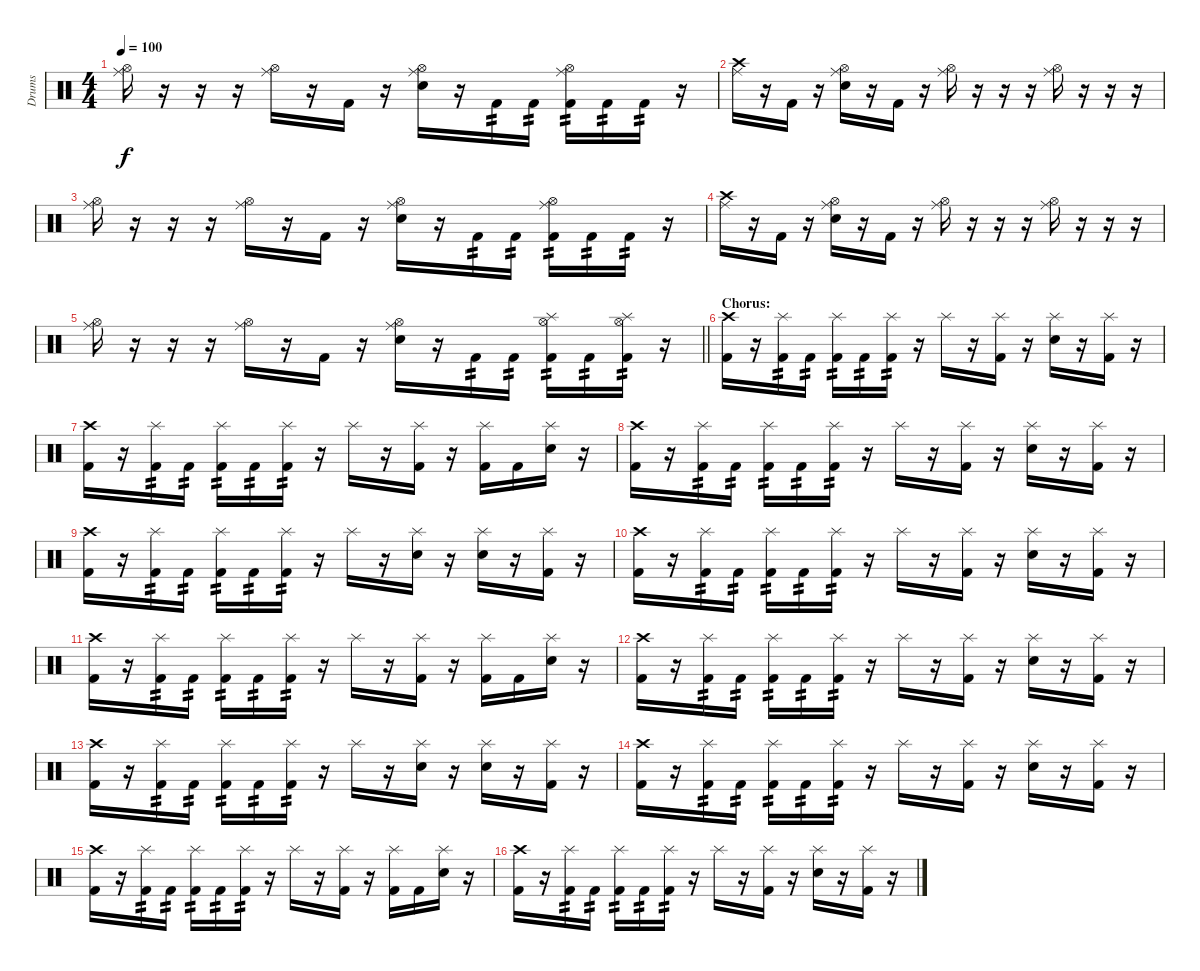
\track ("Drums" "Drums") {instrument percussion}
\staff {score}
\articulation defaults
\ts (4 4)
\tempo 100
\clef neutral
\ks c
("Ride (middle)" "Hi-Hat (open)").16{dy f} r.16 r.16 r.16 ("Ride (middle)" "Hi-Hat (open)").16 r.16 "Kick (hit) 2".16 r.16 ("Ride (middle)" "Hi-Hat (open)" "Electric Snare (hit)").16 r.16 "Kick (hit) 2".16{tp 2} "Kick (hit) 2".16{tp 2} ("Ride (middle)" "Hi-Hat (open)" "Kick (hit) 2").16{tp 2} "Kick (hit) 2".16{tp 2} "Kick (hit) 2".16{tp 2} r.16 |
("Ride (middle)" "Crash high (hit)").16 r.16 "Kick (hit) 2".16 r.16 ("Ride (middle)" "Hi-Hat (open)" "Electric Snare (hit)").16 r.16 "Kick (hit) 2".16 r.16 ("Ride (middle)" "Hi-Hat (open)").16 r.16 r.16 r.16 ("Ride (middle)" "Hi-Hat (open)").16 r.16 r.16 r.16 |
("Ride (middle)" "Hi-Hat (open)").16 r.16 r.16 r.16 ("Ride (middle)" "Hi-Hat (open)").16 r.16 "Kick (hit) 2".16 r.16 ("Ride (middle)" "Hi-Hat (open)" "Electric Snare (hit)").16 r.16 "Kick (hit) 2".16{tp 2} "Kick (hit) 2".16{tp 2} ("Ride (middle)" "Hi-Hat (open)" "Kick (hit) 2").16{tp 2} "Kick (hit) 2".16{tp 2} "Kick (hit) 2".16{tp 2} r.16 |
("Ride (middle)" "Crash high (hit)").16 r.16 "Kick (hit) 2".16 r.16 ("Ride (middle)" "Hi-Hat (open)" "Electric Snare (hit)").16 r.16 "Kick (hit) 2".16 r.16 ("Ride (middle)" "Hi-Hat (open)").16 r.16 r.16 r.16 ("Ride (middle)" "Hi-Hat (open)").16 r.16 r.16 r.16 |
\barLineRight lightlight
("Ride (middle)" "Hi-Hat (open)").16 r.16 r.16 r.16 ("Ride (middle)" "Hi-Hat (open)").16 r.16 "Kick (hit) 2".16 r.16 ("Ride (middle)" "Hi-Hat (open)" "Electric Snare (hit)").16 r.16 "Kick (hit) 2".16{tp 2} "Kick (hit) 2".16{tp 2} ("Splash (hit)" "Hi-Hat (open)" "Kick (hit) 2").16{tp 2} "Kick (hit) 2".16{tp 2} ("Splash (hit)" "Hi-Hat (open)" "Kick (hit) 2").16{tp 2} r.16 |
\section ("" "Chorus:")
("Crash high (hit)" "Kick (hit) 2").16 r.16 ("Splash (hit)" "Kick (hit) 2").16{tp 2} "Kick (hit) 2".16{tp 2} ("Splash (hit)" "Kick (hit) 2").16{tp 2} "Kick (hit) 2".16{tp 2} ("Splash (hit)" "Kick (hit) 2").16{tp 2} r.16 "Splash (hit)".16 r.16 ("Splash (hit)" "Kick (hit) 2").16 r.16 ("Splash (hit)" "Electric Snare (hit)").16 r.16 ("Splash (hit)" "Kick (hit) 2").16 r.16 |
("Crash high (hit)" "Kick (hit) 2").16 r.16 ("Splash (hit)" "Kick (hit) 2").16{tp 2} "Kick (hit) 2".16{tp 2} ("Splash (hit)" "Kick (hit) 2").16{tp 2} "Kick (hit) 2".16{tp 2} ("Splash (hit)" "Kick (hit) 2").16{tp 2} r.16 "Splash (hit)".16 r.16 ("Splash (hit)" "Kick (hit) 2").16 r.16 ("Splash (hit)" "Kick (hit) 2").16 "Kick (hit) 2".16 ("Splash (hit)" "Electric Snare (hit)").16 r.16 |
("Crash high (hit)" "Kick (hit) 2").16 r.16 ("Splash (hit)" "Kick (hit) 2").16{tp 2} "Kick (hit) 2".16{tp 2} ("Splash (hit)" "Kick (hit) 2").16{tp 2} "Kick (hit) 2".16{tp 2} ("Splash (hit)" "Kick (hit) 2").16{tp 2} r.16 "Splash (hit)".16 r.16 ("Splash (hit)" "Kick (hit) 2").16 r.16 ("Splash (hit)" "Electric Snare (hit)").16 r.16 ("Splash (hit)" "Kick (hit) 2").16 r.16 |
("Crash high (hit)" "Kick (hit) 2").16 r.16 ("Splash (hit)" "Kick (hit) 2").16{tp 2} "Kick (hit) 2".16{tp 2} ("Splash (hit)" "Kick (hit) 2").16{tp 2} "Kick (hit) 2".16{tp 2} ("Splash (hit)" "Kick (hit) 2").16{tp 2} r.16 "Splash (hit)".16 r.16 ("Splash (hit)" "Electric Snare (hit)").16 r.16 ("Splash (hit)" "Electric Snare (hit)").16 r.16 ("Splash (hit)" "Kick (hit) 2").16 r.16 |
("Crash high (hit)" "Kick (hit) 2").16 r.16 ("Splash (hit)" "Kick (hit) 2").16{tp 2} "Kick (hit) 2".16{tp 2} ("Splash (hit)" "Kick (hit) 2").16{tp 2} "Kick (hit) 2".16{tp 2} ("Splash (hit)" "Kick (hit) 2").16{tp 2} r.16 "Splash (hit)".16 r.16 ("Splash (hit)" "Kick (hit) 2").16 r.16 ("Splash (hit)" "Electric Snare (hit)").16 r.16 ("Splash (hit)" "Kick (hit) 2").16 r.16 |
("Crash high (hit)" "Kick (hit) 2").16 r.16 ("Splash (hit)" "Kick (hit) 2").16{tp 2} "Kick (hit) 2".16{tp 2} ("Splash (hit)" "Kick (hit) 2").16{tp 2} "Kick (hit) 2".16{tp 2} ("Splash (hit)" "Kick (hit) 2").16{tp 2} r.16 "Splash (hit)".16 r.16 ("Splash (hit)" "Kick (hit) 2").16 r.16 ("Splash (hit)" "Kick (hit) 2").16 "Kick (hit) 2".16 ("Splash (hit)" "Electric Snare (hit)").16 r.16 |
("Crash high (hit)" "Kick (hit) 2").16 r.16 ("Splash (hit)" "Kick (hit) 2").16{tp 2} "Kick (hit) 2".16{tp 2} ("Splash (hit)" "Kick (hit) 2").16{tp 2} "Kick (hit) 2".16{tp 2} ("Splash (hit)" "Kick (hit) 2").16{tp 2} r.16 "Splash (hit)".16 r.16 ("Splash (hit)" "Kick (hit) 2").16 r.16 ("Splash (hit)" "Electric Snare (hit)").16 r.16 ("Splash (hit)" "Kick (hit) 2").16 r.16 |
("Crash high (hit)" "Kick (hit) 2").16 r.16 ("Splash (hit)" "Kick (hit) 2").16{tp 2} "Kick (hit) 2".16{tp 2} ("Splash (hit)" "Kick (hit) 2").16{tp 2} "Kick (hit) 2".16{tp 2} ("Splash (hit)" "Kick (hit) 2").16{tp 2} r.16 "Splash (hit)".16 r.16 ("Splash (hit)" "Electric Snare (hit)").16 r.16 ("Splash (hit)" "Electric Snare (hit)").16 r.16 ("Splash (hit)" "Kick (hit) 2").16 r.16 |
("Crash high (hit)" "Kick (hit) 2").16 r.16 ("Splash (hit)" "Kick (hit) 2").16{tp 2} "Kick (hit) 2".16{tp 2} ("Splash (hit)" "Kick (hit) 2").16{tp 2} "Kick (hit) 2".16{tp 2} ("Splash (hit)" "Kick (hit) 2").16{tp 2} r.16 "Splash (hit)".16 r.16 ("Splash (hit)" "Kick (hit) 2").16 r.16 ("Splash (hit)" "Electric Snare (hit)").16 r.16 ("Splash (hit)" "Kick (hit) 2").16 r.16 |
("Crash high (hit)" "Kick (hit) 2").16 r.16 ("Splash (hit)" "Kick (hit) 2").16{tp 2} "Kick (hit) 2".16{tp 2} ("Splash (hit)" "Kick (hit) 2").16{tp 2} "Kick (hit) 2".16{tp 2} ("Splash (hit)" "Kick (hit) 2").16{tp 2} r.16 "Splash (hit)".16 r.16 ("Splash (hit)" "Kick (hit) 2").16 r.16 ("Splash (hit)" "Kick (hit) 2").16 "Kick (hit) 2".16 ("Splash (hit)" "Electric Snare (hit)").16 r.16 |
("Crash high (hit)" "Kick (hit) 2").16 r.16 ("Splash (hit)" "Kick (hit) 2").16{tp 2} "Kick (hit) 2".16{tp 2} ("Splash (hit)" "Kick (hit) 2").16{tp 2} "Kick (hit) 2".16{tp 2} ("Splash (hit)" "Kick (hit) 2").16{tp 2} r.16 "Splash (hit)".16 r.16 ("Splash (hit)" "Kick (hit) 2").16 r.16 ("Splash (hit)" "Electric Snare (hit)").16 r.16 ("Splash (hit)" "Kick (hit) 2").16 r.16
